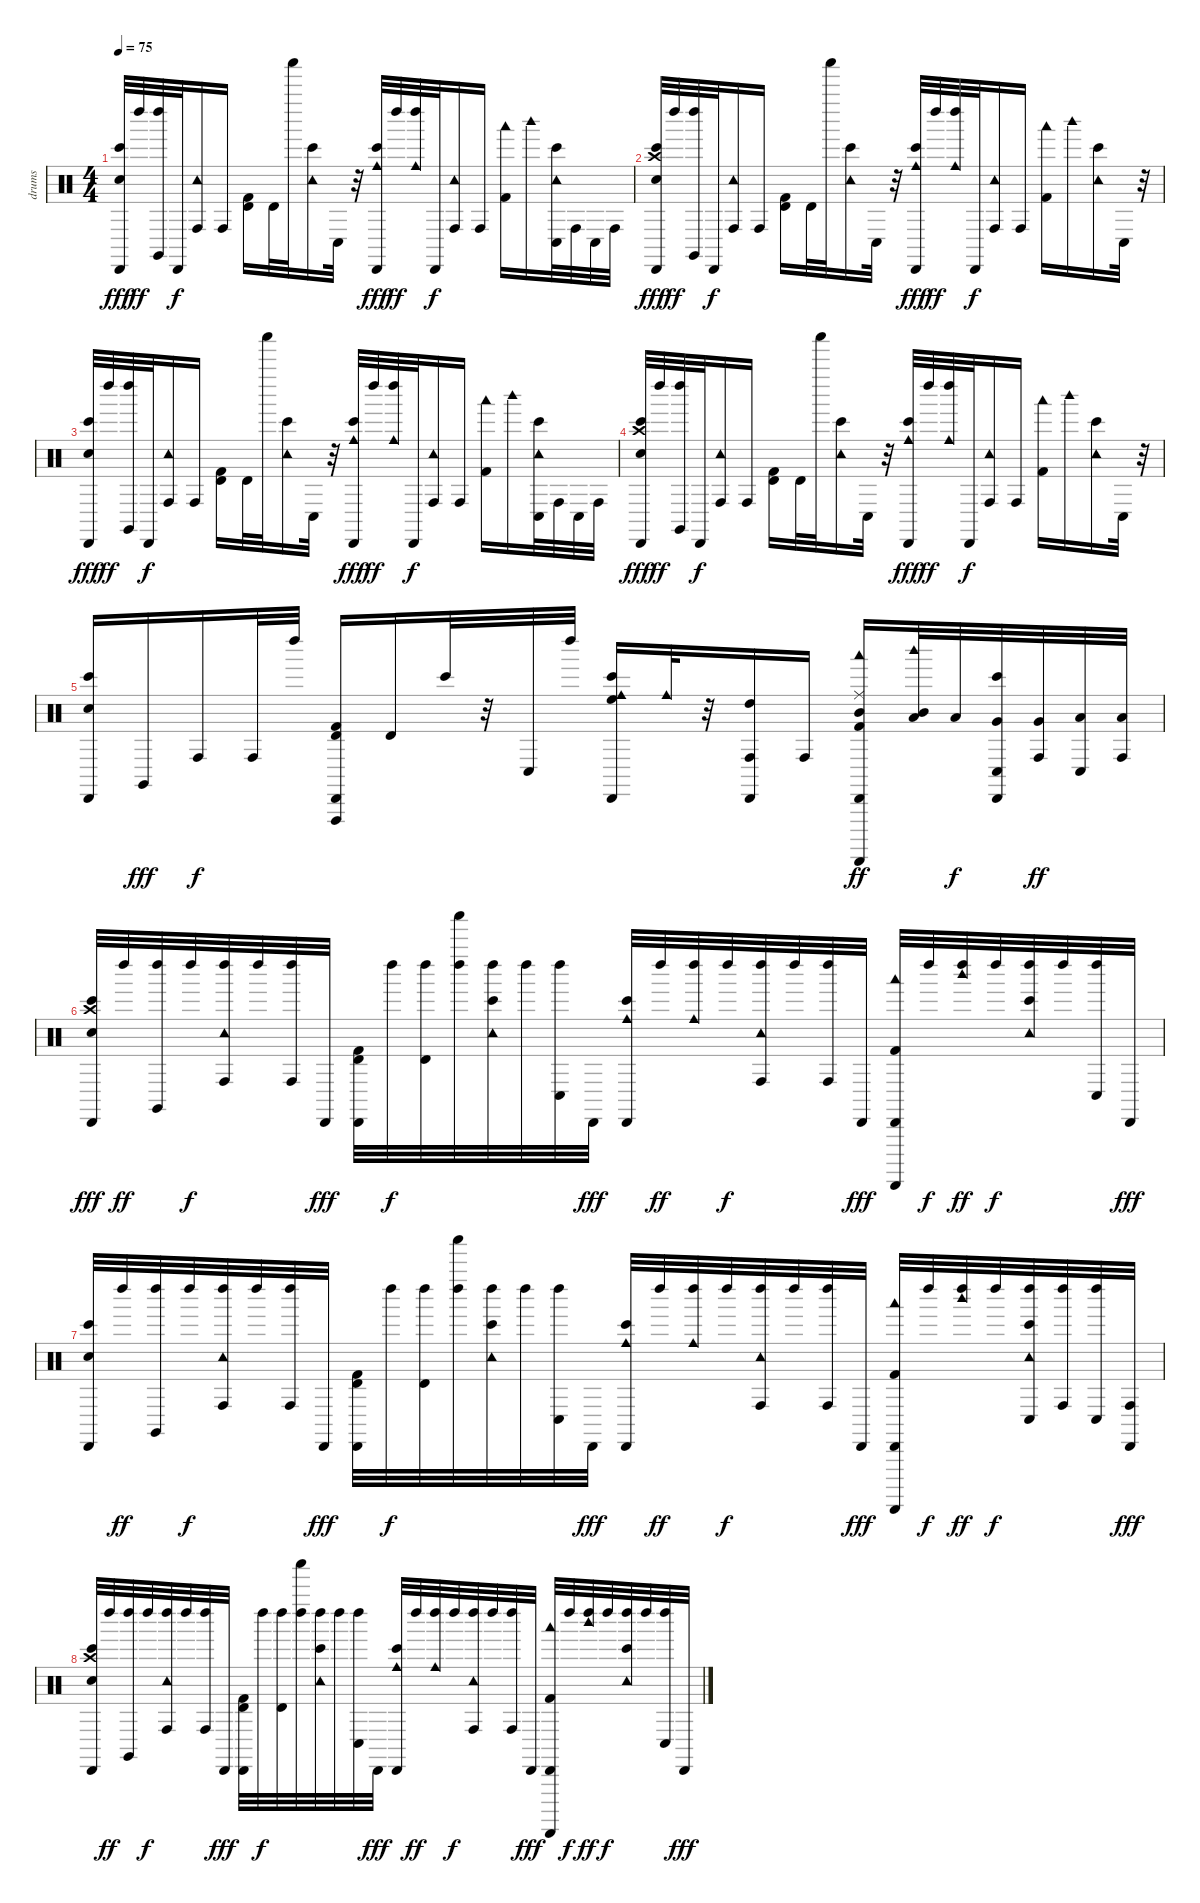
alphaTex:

\track ("drums" "drums") {instrument percussion}
\staff {score}
\articulation defaults
\ts (4 4)
\tempo 75
\clef neutral
\ks c
("Snare (hit) 2" "Bongo High (hit)" "Cabasa (hit)").32{dy fff} "Left Maraca (hit)".32{dy ff} ("Claves (hit)" "Left Maraca (hit)").32 "Cabasa (hit)".32{dy f} ("Conga high (hit)" "Tambourine (hit)").16 "Conga high (hit)".16 ("Timbale high (hit)" "Kick (hit) 2").16 "Timbale high (hit)".32 "Shaker (hit)".32 ("Bongo High (hit)" "Tambourine (hit)").16 "Conga low (hit)".32 r.32 ("Bongo High (hit)" "Cowbell medium (hit)" "Cabasa (hit)").32{dy fff} "Left Maraca (hit)".32{dy ff} ("Cowbell medium (hit)" "Left Maraca (hit)").32 "Cabasa (hit)".32{dy f} ("Conga high (hit)" "Tambourine (hit)").16 "Conga high (hit)".16 ("Woodblock low (hit)" "Kick (hit) 2").16 "Woodblock high (hit)".16 ("Bongo High (hit)" "Conga low (hit)" "Tambourine (hit)").32 "Conga high (hit)".32 "Conga low (hit)".32 "Conga high (hit)".32 |
("Crash high (hit)" "Snare (hit) 2" "Bongo High (hit)" "Cabasa (hit)").32{dy fff} "Left Maraca (hit)".32{dy ff} ("Claves (hit)" "Left Maraca (hit)").32 "Cabasa (hit)".32{dy f} ("Conga high (hit)" "Tambourine (hit)").16 "Conga high (hit)".16 ("Timbale high (hit)" "Kick (hit) 2").16 "Timbale high (hit)".32 "Shaker (hit)".32 ("Bongo High (hit)" "Tambourine (hit)").16 "Conga low (hit)".32 r.32 ("Bongo High (hit)" "Cowbell medium (hit)" "Cabasa (hit)").32{dy fff} "Left Maraca (hit)".32{dy ff} ("Cowbell medium (hit)" "Left Maraca (hit)").32 "Cabasa (hit)".32{dy f} ("Conga high (hit)" "Tambourine (hit)").16 "Conga high (hit)".16 ("Woodblock low (hit)" "Kick (hit) 2").16 "Woodblock high (hit)".16 ("Bongo High (hit)" "Tambourine (hit)").16 "Conga low (hit)".32 r.32 |
("Snare (hit) 2" "Bongo High (hit)" "Cabasa (hit)").32{dy fff} "Left Maraca (hit)".32{dy ff} ("Claves (hit)" "Left Maraca (hit)").32 "Cabasa (hit)".32{dy f} ("Conga high (hit)" "Tambourine (hit)").16 "Conga high (hit)".16 ("Timbale high (hit)" "Kick (hit) 2").16 "Timbale high (hit)".32 "Shaker (hit)".32 ("Bongo High (hit)" "Tambourine (hit)").16 "Conga low (hit)".32 r.32 ("Bongo High (hit)" "Cowbell medium (hit)" "Cabasa (hit)").32{dy fff} "Left Maraca (hit)".32{dy ff} ("Cowbell medium (hit)" "Left Maraca (hit)").32 "Cabasa (hit)".32{dy f} ("Conga high (hit)" "Tambourine (hit)").16 "Conga high (hit)".16 ("Woodblock low (hit)" "Kick (hit) 2").16 "Woodblock high (hit)".16 ("Bongo High (hit)" "Conga low (hit)" "Tambourine (hit)").32 "Conga high (hit)".32 "Conga low (hit)".32 "Conga high (hit)".32 |
("Crash high (hit)" "Snare (hit) 2" "Bongo High (hit)" "Cabasa (hit)").32{dy fff} "Left Maraca (hit)".32{dy ff} ("Claves (hit)" "Left Maraca (hit)").32 "Cabasa (hit)".32{dy f} ("Conga high (hit)" "Tambourine (hit)").16 "Conga high (hit)".16 ("Timbale high (hit)" "Kick (hit) 2").16 "Timbale high (hit)".32 "Shaker (hit)".32 ("Bongo High (hit)" "Tambourine (hit)").16 "Conga low (hit)".32 r.32 ("Bongo High (hit)" "Cowbell medium (hit)" "Cabasa (hit)").32{dy fff} "Left Maraca (hit)".32{dy ff} ("Cowbell medium (hit)" "Left Maraca (hit)").32 "Cabasa (hit)".32{dy f} ("Conga high (hit)" "Tambourine (hit)").16 "Conga high (hit)".16 ("Woodblock low (hit)" "Kick (hit) 2").16 "Woodblock high (hit)".16 ("Bongo High (hit)" "Tambourine (hit)").16 "Conga low (hit)".32 r.32 |
("Bongo High (hit)" "Snare (hit) 2" "Cabasa (hit)").16 "Claves (hit)".16{dy fff} "Conga high (hit)".16{dy f} "Conga high (hit)".32 "Left Maraca (hit)".32 ("Timbale high (hit)" "Kick (hit) 2" "Vibraslap (hit)" "Cabasa (hit)").16 "Timbale high (hit)".16 "Bongo High (hit)".32 r.32 "Conga low (hit)".32 "Left Maraca (hit)".32 ("Bongo High (hit)" "Cowbell medium (hit)" "High Floor Tom (hit)" "Cabasa (hit)").16 "Cowbell medium (hit)".32 r.32 ("Conga high (hit)" "High Tom (hit)" "Cabasa (hit)").16 "Conga high (hit)".16 ("Kick (hit) 2" "Guiro (scrap-return)" "Woodblock low (hit)" "Ride (middle)" "Mid Tom (hit)" "Cabasa (hit)").16{dy ff} ("Woodblock high (hit)" "Mid Tom (hit)" "Low Tom (hit)").32 "Low Tom (hit)".32{dy f} ("Bongo High (hit)" "Conga low (hit)" "Very Low Tom (hit)" "Cabasa (hit)").32 ("Conga high (hit)" "Very Low Tom (hit)").32{dy ff} ("Conga low (hit)" "Low Floor Tom (hit)").32 ("Conga high (hit)" "Low Floor Tom (hit)").32 |
("Snare (hit) 2" "Crash high (hit)" "Bongo High (hit)" "Cabasa (hit)").32{dy fff} "Left Maraca (hit)".32{dy ff} ("Claves (hit)" "Left Maraca (hit)").32 "Left Maraca (hit)".32{dy f} ("Conga high (hit)" "Tambourine (hit)" "Left Maraca (hit)").32 "Left Maraca (hit)".32 ("Conga high (hit)" "Left Maraca (hit)").32 "Cabasa (hit)".32{dy fff} ("Timbale high (hit)" "Kick (hit) 2" "Cabasa (hit)").32 "Left Maraca (hit)".32{dy f} ("Timbale high (hit)" "Left Maraca (hit)").32 ("Left Maraca (hit)" "Shaker (hit)").32 ("Bongo High (hit)" "Tambourine (hit)" "Left Maraca (hit)").32 "Left Maraca (hit)".32 ("Conga low (hit)" "Left Maraca (hit)").32 "Cabasa (hit)".32{dy fff} ("Bongo High (hit)" "Cowbell medium (hit)" "Cabasa (hit)").32 "Left Maraca (hit)".32{dy ff} ("Cowbell medium (hit)" "Left Maraca (hit)").32 "Left Maraca (hit)".32{dy f} ("Conga high (hit)" "Tambourine (hit)" "Left Maraca (hit)").32 "Left Maraca (hit)".32 ("Conga high (hit)" "Left Maraca (hit)").32 "Cabasa (hit)".32{dy fff} ("Guiro (scrap-return)" "Kick (hit) 2" "Woodblock low (hit)" "Cabasa (hit)").32 "Left Maraca (hit)".32{dy f} ("Woodblock high (hit)" "Left Maraca (hit)").32{dy ff} "Left Maraca (hit)".32{dy f} ("Bongo High (hit)" "Tambourine (hit)" "Left Maraca (hit)").32 "Left Maraca (hit)".32 ("Conga low (hit)" "Left Maraca (hit)").32 "Cabasa (hit)".32{dy fff} |
("Snare (hit) 2" "Bongo High (hit)" "Cabasa (hit)").32 "Left Maraca (hit)".32{dy ff} ("Claves (hit)" "Left Maraca (hit)").32 "Left Maraca (hit)".32{dy f} ("Conga high (hit)" "Tambourine (hit)" "Left Maraca (hit)").32 "Left Maraca (hit)".32 ("Conga high (hit)" "Left Maraca (hit)").32 "Cabasa (hit)".32{dy fff} ("Timbale high (hit)" "Kick (hit) 2" "Cabasa (hit)").32 "Left Maraca (hit)".32{dy f} ("Timbale high (hit)" "Left Maraca (hit)").32 ("Left Maraca (hit)" "Shaker (hit)").32 ("Bongo High (hit)" "Tambourine (hit)" "Left Maraca (hit)").32 "Left Maraca (hit)".32 ("Conga low (hit)" "Left Maraca (hit)").32 "Cabasa (hit)".32{dy fff} ("Bongo High (hit)" "Cowbell medium (hit)" "Cabasa (hit)").32 "Left Maraca (hit)".32{dy ff} ("Cowbell medium (hit)" "Left Maraca (hit)").32 "Left Maraca (hit)".32{dy f} ("Conga high (hit)" "Tambourine (hit)" "Left Maraca (hit)").32 "Left Maraca (hit)".32 ("Conga high (hit)" "Left Maraca (hit)").32 "Cabasa (hit)".32{dy fff} ("Kick (hit) 2" "Guiro (scrap-return)" "Woodblock low (hit)" "Cabasa (hit)").32 "Left Maraca (hit)".32{dy f} ("Woodblock high (hit)" "Left Maraca (hit)").32{dy ff} "Left Maraca (hit)".32{dy f} ("Bongo High (hit)" "Conga low (hit)" "Tambourine (hit)" "Left Maraca (hit)").32 ("Conga high (hit)" "Left Maraca (hit)").32 ("Conga low (hit)" "Left Maraca (hit)").32 ("Conga high (hit)" "Cabasa (hit)").32{dy fff} |
("Crash high (hit)" "Snare (hit) 2" "Bongo High (hit)" "Cabasa (hit)").32 "Left Maraca (hit)".32{dy ff} ("Claves (hit)" "Left Maraca (hit)").32 "Left Maraca (hit)".32{dy f} ("Conga high (hit)" "Tambourine (hit)" "Left Maraca (hit)").32 "Left Maraca (hit)".32 ("Conga high (hit)" "Left Maraca (hit)").32 "Cabasa (hit)".32{dy fff} ("Timbale high (hit)" "Kick (hit) 2" "Cabasa (hit)").32 "Left Maraca (hit)".32{dy f} ("Timbale high (hit)" "Left Maraca (hit)").32 ("Left Maraca (hit)" "Shaker (hit)").32 ("Bongo High (hit)" "Tambourine (hit)" "Left Maraca (hit)").32 "Left Maraca (hit)".32 ("Conga low (hit)" "Left Maraca (hit)").32 "Cabasa (hit)".32{dy fff} ("Bongo High (hit)" "Cowbell medium (hit)" "Cabasa (hit)").32 "Left Maraca (hit)".32{dy ff} ("Cowbell medium (hit)" "Left Maraca (hit)").32 "Left Maraca (hit)".32{dy f} ("Conga high (hit)" "Tambourine (hit)" "Left Maraca (hit)").32 "Left Maraca (hit)".32 ("Conga high (hit)" "Left Maraca (hit)").32 "Cabasa (hit)".32{dy fff} ("Kick (hit) 2" "Guiro (scrap-return)" "Woodblock low (hit)" "Cabasa (hit)").32 "Left Maraca (hit)".32{dy f} ("Woodblock high (hit)" "Left Maraca (hit)").32{dy ff} "Left Maraca (hit)".32{dy f} ("Bongo High (hit)" "Tambourine (hit)" "Left Maraca (hit)").32 "Left Maraca (hit)".32 ("Conga low (hit)" "Left Maraca (hit)").32 "Cabasa (hit)".32{dy fff}
